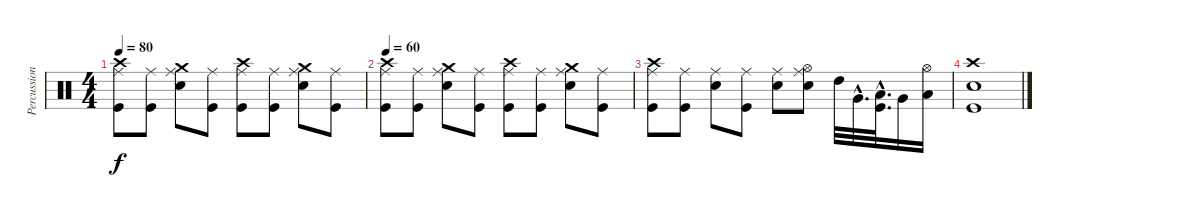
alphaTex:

\track ("Percussions" "Percussion") {instrument percussion}
\staff {score}
\articulation defaults
\ts (4 4)
\tempo 80
\clef neutral
\ks c
("Ride (middle)" "Crash high (hit)" "Kick (hit)").8{dy f} ("Ride (middle)" "Kick (hit)").8 ("Ride (middle)" "Crash medium (hit)" "Electric Snare (hit)").8 ("Ride (middle)" "Kick (hit)").8 ("Ride (middle)" "Crash high (hit)" "Kick (hit)").8 ("Ride (middle)" "Kick (hit)").8 ("Ride (middle)" "Crash medium (hit)" "Electric Snare (hit)").8 ("Ride (middle)" "Kick (hit)").8 |
\tempo 60
("Ride (middle)" "Crash high (hit)" "Kick (hit)").8 ("Ride (middle)" "Kick (hit)").8 ("Ride (middle)" "Crash medium (hit)" "Electric Snare (hit)").8 ("Ride (middle)" "Kick (hit)").8 ("Ride (middle)" "Crash high (hit)" "Kick (hit)").8 ("Ride (middle)" "Kick (hit)").8 ("Ride (middle)" "Crash medium (hit)" "Electric Snare (hit)").8 ("Ride (middle)" "Kick (hit)").8 |
("Ride (middle)" "Crash high (hit)" "Kick (hit)").8 ("Ride (middle)" "Kick (hit)").8 ("Ride (middle)" "Electric Snare (hit)").8 ("Ride (middle)" "Kick (hit)").8 ("Ride (middle)" "Electric Snare (hit)").8 ("Ride (middle)" "Hi-Hat (open)" "Electric Snare (hit)").8 "High Tom (hit)".32 "Very Low Tom (hit)"{hac}.32{d} ("Low Tom (hit)"{hac} "Kick (hit)"{hac}).32{d} "Very Low Tom (hit)".16 ("Hi-Hat (open)" "Low Floor Tom (hit)").16 |
("Crash high (hit)" "Snare (hit) 2" "Kick (hit)").1
